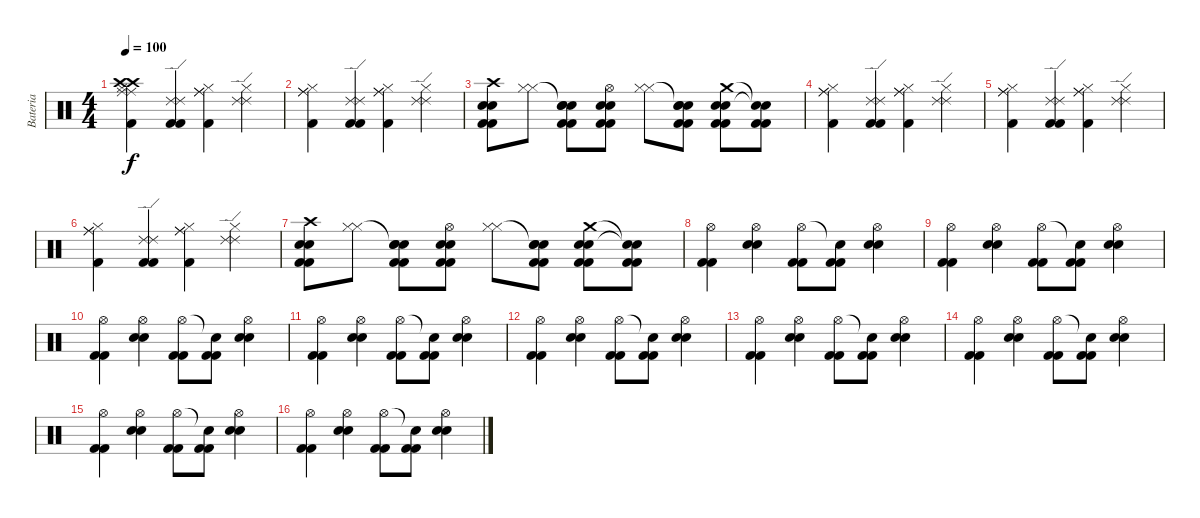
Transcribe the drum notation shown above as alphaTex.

\track ("Bateria" "Bateria") {instrument percussion}
\staff {score}
\articulation defaults
\ts (4 4)
\tempo 100
\clef neutral
\ks c
("Ride (middle)" "Ride (middle)" "Hi-Hat (closed)" "Crash high (hit)" "Crash high (hit)" "Kick (hit) 2").4{dy f} ("Kick (hit) 2" "Kick (hit) 2" "Ride (edge) 2" "Ride (edge) 2").4 ("Ride (middle)" "Ride (middle)" "Hi-Hat (closed)" "Kick (hit) 2").4 ("Ride (edge) 2" "Ride (edge) 2" "Hi-Hat (closed)").4 |
("Ride (middle)" "Ride (middle)" "Hi-Hat (closed)" "Kick (hit) 2").4 ("Kick (hit) 2" "Kick (hit) 2" "Ride (edge) 2" "Ride (edge) 2").4 ("Ride (middle)" "Ride (middle)" "Hi-Hat (closed)" "Kick (hit) 2").4 ("Ride (edge) 2" "Ride (edge) 2" "Hi-Hat (closed)").4 |
("Crash high (hit)" "Snare (hit) 2" "Snare (hit) 2" "Kick (hit) 2" "Kick (hit) 2").8 ("Hi-Hat (closed)" "Hi-Hat (closed)").8 ("Snare (hit)"{t} "Electric Snare (hit)" "Electric Snare (hit)" "Kick (hit) 2" "Kick (hit) 2").8 ("Hi-Hat (open)" "Snare (hit) 2" "Snare (hit) 2" "Kick (hit) 2" "Kick (hit) 2").8 ("Hi-Hat (closed)" "Hi-Hat (closed)").8 ("Snare (hit)"{t} "Electric Snare (hit)" "Electric Snare (hit)" "Kick (hit) 2" "Kick (hit) 2").8 ("Crash medium (hit)" "Snare (hit) 2" "Snare (hit) 2" "Kick (hit) 2" "Kick (hit) 2").8 ("Snare (hit)"{t} "Snare (hit) 2"{t} "Kick (hit) 2" "Kick (hit) 2").8 |
("Ride (middle)" "Ride (middle)" "Hi-Hat (closed)" "Kick (hit) 2").4 ("Kick (hit) 2" "Kick (hit) 2" "Ride (edge) 2" "Ride (edge) 2").4 ("Ride (middle)" "Ride (middle)" "Hi-Hat (closed)" "Kick (hit) 2").4 ("Ride (edge) 2" "Ride (edge) 2" "Hi-Hat (closed)").4 |
("Ride (middle)" "Ride (middle)" "Hi-Hat (closed)" "Kick (hit) 2").4 ("Kick (hit) 2" "Kick (hit) 2" "Ride (edge) 2" "Ride (edge) 2").4 ("Ride (middle)" "Ride (middle)" "Hi-Hat (closed)" "Kick (hit) 2").4 ("Ride (edge) 2" "Ride (edge) 2" "Hi-Hat (closed)").4 |
("Ride (middle)" "Ride (middle)" "Hi-Hat (closed)" "Kick (hit) 2").4 ("Kick (hit) 2" "Kick (hit) 2" "Ride (edge) 2" "Ride (edge) 2").4 ("Ride (middle)" "Ride (middle)" "Hi-Hat (closed)" "Kick (hit) 2").4 ("Ride (edge) 2" "Ride (edge) 2" "Hi-Hat (closed)").4 |
("Crash high (hit)" "Snare (hit) 2" "Snare (hit) 2" "Kick (hit) 2" "Kick (hit) 2").8 ("Hi-Hat (closed)" "Hi-Hat (closed)").8 ("Snare (hit)"{t} "Electric Snare (hit)" "Electric Snare (hit)" "Kick (hit) 2" "Kick (hit) 2").8 ("Hi-Hat (open)" "Snare (hit) 2" "Snare (hit) 2" "Kick (hit) 2" "Kick (hit) 2").8 ("Hi-Hat (closed)" "Hi-Hat (closed)").8 ("Snare (hit)"{t} "Electric Snare (hit)" "Electric Snare (hit)" "Kick (hit) 2" "Kick (hit) 2").8 ("Crash medium (hit)" "Snare (hit) 2" "Snare (hit) 2" "Kick (hit) 2" "Kick (hit) 2").8 ("Snare (hit)"{t} "Snare (hit) 2"{t} "Kick (hit) 2" "Kick (hit) 2").8 |
("Kick (hit) 2" "Kick (hit) 2" "Hi-Hat (open)").4 ("Electric Snare (hit)" "Electric Snare (hit)" "Hi-Hat (open)").4 ("Kick (hit) 2" "Kick (hit) 2" "Hi-Hat (open)").8 ("Kick (hit) 2" "Kick (hit) 2" "Snare (hit)"{t}).8 ("Electric Snare (hit)" "Electric Snare (hit)" "Hi-Hat (open)").4 |
("Kick (hit) 2" "Kick (hit) 2" "Hi-Hat (open)").4 ("Electric Snare (hit)" "Electric Snare (hit)" "Hi-Hat (open)").4 ("Kick (hit) 2" "Kick (hit) 2" "Hi-Hat (open)").8 ("Kick (hit) 2" "Kick (hit) 2" "Snare (hit)"{t}).8 ("Electric Snare (hit)" "Electric Snare (hit)" "Hi-Hat (open)").4 |
("Kick (hit) 2" "Kick (hit) 2" "Hi-Hat (open)").4 ("Electric Snare (hit)" "Electric Snare (hit)" "Hi-Hat (open)").4 ("Kick (hit) 2" "Kick (hit) 2" "Hi-Hat (open)").8 ("Kick (hit) 2" "Kick (hit) 2" "Snare (hit)"{t}).8 ("Electric Snare (hit)" "Electric Snare (hit)" "Hi-Hat (open)").4 |
("Kick (hit) 2" "Kick (hit) 2" "Hi-Hat (open)").4 ("Electric Snare (hit)" "Electric Snare (hit)" "Hi-Hat (open)").4 ("Kick (hit) 2" "Kick (hit) 2" "Hi-Hat (open)").8 ("Kick (hit) 2" "Kick (hit) 2" "Snare (hit)"{t}).8 ("Electric Snare (hit)" "Electric Snare (hit)" "Hi-Hat (open)").4 |
("Kick (hit) 2" "Kick (hit) 2" "Hi-Hat (open)").4 ("Electric Snare (hit)" "Electric Snare (hit)" "Hi-Hat (open)").4 ("Kick (hit) 2" "Kick (hit) 2" "Hi-Hat (open)").8 ("Kick (hit) 2" "Kick (hit) 2" "Snare (hit)"{t}).8 ("Electric Snare (hit)" "Electric Snare (hit)" "Hi-Hat (open)").4 |
("Kick (hit) 2" "Kick (hit) 2" "Hi-Hat (open)").4 ("Electric Snare (hit)" "Electric Snare (hit)" "Hi-Hat (open)").4 ("Kick (hit) 2" "Kick (hit) 2" "Hi-Hat (open)").8 ("Kick (hit) 2" "Kick (hit) 2" "Snare (hit)"{t}).8 ("Electric Snare (hit)" "Electric Snare (hit)" "Hi-Hat (open)").4 |
("Kick (hit) 2" "Kick (hit) 2" "Hi-Hat (open)").4 ("Electric Snare (hit)" "Electric Snare (hit)" "Hi-Hat (open)").4 ("Kick (hit) 2" "Kick (hit) 2" "Hi-Hat (open)").8 ("Kick (hit) 2" "Kick (hit) 2" "Snare (hit)"{t}).8 ("Electric Snare (hit)" "Electric Snare (hit)" "Hi-Hat (open)").4 |
("Kick (hit) 2" "Kick (hit) 2" "Hi-Hat (open)").4 ("Electric Snare (hit)" "Electric Snare (hit)" "Hi-Hat (open)").4 ("Kick (hit) 2" "Kick (hit) 2" "Hi-Hat (open)").8 ("Kick (hit) 2" "Kick (hit) 2" "Snare (hit)"{t}).8 ("Electric Snare (hit)" "Electric Snare (hit)" "Hi-Hat (open)").4 |
("Kick (hit) 2" "Kick (hit) 2" "Hi-Hat (open)").4 ("Electric Snare (hit)" "Electric Snare (hit)" "Hi-Hat (open)").4 ("Kick (hit) 2" "Kick (hit) 2" "Hi-Hat (open)").8 ("Kick (hit) 2" "Kick (hit) 2" "Snare (hit)"{t}).8 ("Electric Snare (hit)" "Electric Snare (hit)" "Hi-Hat (open)").4
